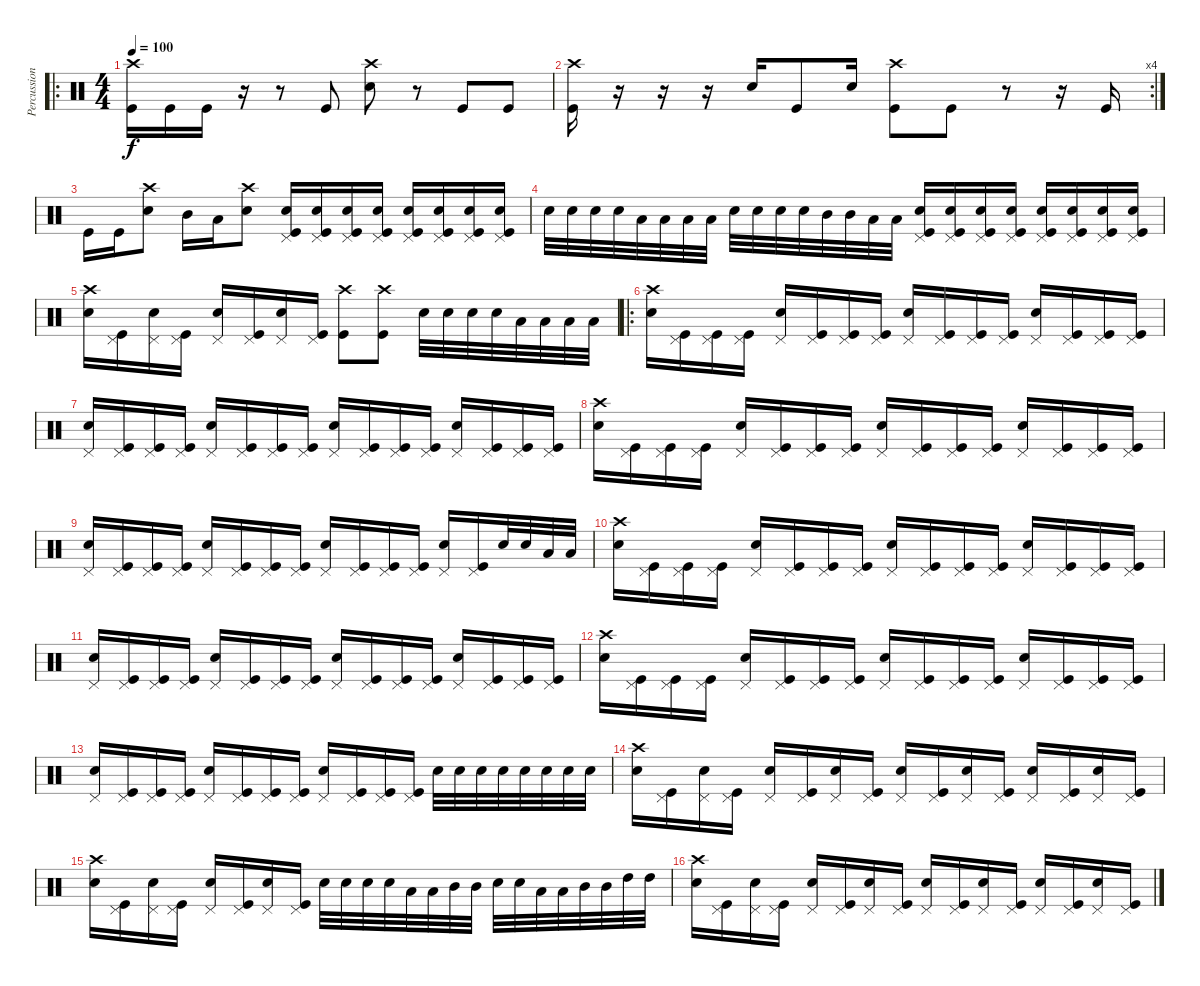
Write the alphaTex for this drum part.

\track ("Percussion" "Percussion") {instrument percussion}
\staff {score}
\articulation defaults
\ro
\ts (4 4)
\tempo 100
\clef neutral
\ks c
("Crash high (hit)" "Kick (hit)").16{dy f} "Kick (hit)".16 "Kick (hit)".16 r.16 r.8 "Kick (hit)".8 ("Crash high (hit)" "Electric Snare (hit)").8 r.8 "Kick (hit)".8 "Kick (hit)".8 |
\rc 4
("Crash high (hit)" "Kick (hit)").16 r.16 r.16 r.16 "Electric Snare (hit)".16 "Kick (hit)".8 "Electric Snare (hit)".16 ("Crash high (hit)" "Kick (hit)").8 "Kick (hit)".8 r.8 r.16 "Kick (hit)".16 |
"Kick (hit)".16 "Kick (hit)".16 ("Crash high (hit)" "Electric Snare (hit)").8 "Mid Tom (hit)".16 "Low Tom (hit)".16 ("Crash high (hit)" "Electric Snare (hit)").8 ("Pedal Hi-Hat (hit)" "Electric Snare (hit)" "Kick (hit)").16 ("Pedal Hi-Hat (hit)" "Electric Snare (hit)" "Kick (hit)").16 ("Pedal Hi-Hat (hit)" "Electric Snare (hit)" "Kick (hit)").16 ("Pedal Hi-Hat (hit)" "Electric Snare (hit)" "Kick (hit)").16 ("Pedal Hi-Hat (hit)" "Electric Snare (hit)" "Kick (hit)").16 ("Pedal Hi-Hat (hit)" "Electric Snare (hit)" "Kick (hit)").16 ("Pedal Hi-Hat (hit)" "Electric Snare (hit)" "Kick (hit)").16 ("Pedal Hi-Hat (hit)" "Electric Snare (hit)" "Kick (hit)").16 |
"Electric Snare (hit)".32 "Electric Snare (hit)".32 "Electric Snare (hit)".32 "Electric Snare (hit)".32 "Low Tom (hit)".32 "Low Tom (hit)".32 "Low Tom (hit)".32 "Low Tom (hit)".32 "Electric Snare (hit)".32 "Electric Snare (hit)".32 "Electric Snare (hit)".32 "Electric Snare (hit)".32 "Mid Tom (hit)".32 "Mid Tom (hit)".32 "Low Tom (hit)".32 "Low Tom (hit)".32 ("Pedal Hi-Hat (hit)" "Kick (hit)" "Electric Snare (hit)").16 ("Pedal Hi-Hat (hit)" "Kick (hit)" "Electric Snare (hit)").16 ("Pedal Hi-Hat (hit)" "Kick (hit)" "Electric Snare (hit)").16 ("Pedal Hi-Hat (hit)" "Kick (hit)" "Electric Snare (hit)").16 ("Pedal Hi-Hat (hit)" "Kick (hit)" "Electric Snare (hit)").16 ("Pedal Hi-Hat (hit)" "Kick (hit)" "Electric Snare (hit)").16 ("Pedal Hi-Hat (hit)" "Kick (hit)" "Electric Snare (hit)").16 ("Pedal Hi-Hat (hit)" "Kick (hit)" "Electric Snare (hit)").16 |
("Crash high (hit)" "Electric Snare (hit)").16 ("Pedal Hi-Hat (hit)" "Kick (hit)").16 ("Pedal Hi-Hat (hit)" "Electric Snare (hit)").16 ("Pedal Hi-Hat (hit)" "Kick (hit)").16 ("Pedal Hi-Hat (hit)" "Electric Snare (hit)").16 ("Pedal Hi-Hat (hit)" "Kick (hit)").16 ("Pedal Hi-Hat (hit)" "Electric Snare (hit)").16 ("Pedal Hi-Hat (hit)" "Kick (hit)").16 ("Crash high (hit)" "Kick (hit)").8 ("Crash high (hit)" "Kick (hit)").8 "Electric Snare (hit)".32 "Electric Snare (hit)".32 "Electric Snare (hit)".32 "Electric Snare (hit)".32 "Low Tom (hit)".32 "Low Tom (hit)".32 "Low Tom (hit)".32 "Low Tom (hit)".32 |
\ro
("Crash high (hit)" "Electric Snare (hit)").16 ("Pedal Hi-Hat (hit)" "Kick (hit)").16 ("Pedal Hi-Hat (hit)" "Kick (hit)").16 ("Pedal Hi-Hat (hit)" "Kick (hit)").16 ("Pedal Hi-Hat (hit)" "Electric Snare (hit)").16 ("Pedal Hi-Hat (hit)" "Kick (hit)").16 ("Pedal Hi-Hat (hit)" "Kick (hit)").16 ("Pedal Hi-Hat (hit)" "Kick (hit)").16 ("Pedal Hi-Hat (hit)" "Electric Snare (hit)").16 ("Pedal Hi-Hat (hit)" "Kick (hit)").16 ("Pedal Hi-Hat (hit)" "Kick (hit)").16 ("Pedal Hi-Hat (hit)" "Kick (hit)").16 ("Pedal Hi-Hat (hit)" "Electric Snare (hit)").16 ("Pedal Hi-Hat (hit)" "Kick (hit)").16 ("Pedal Hi-Hat (hit)" "Kick (hit)").16 ("Pedal Hi-Hat (hit)" "Kick (hit)").16 |
("Pedal Hi-Hat (hit)" "Electric Snare (hit)").16 ("Pedal Hi-Hat (hit)" "Kick (hit)").16 ("Pedal Hi-Hat (hit)" "Kick (hit)").16 ("Pedal Hi-Hat (hit)" "Kick (hit)").16 ("Pedal Hi-Hat (hit)" "Electric Snare (hit)").16 ("Pedal Hi-Hat (hit)" "Kick (hit)").16 ("Pedal Hi-Hat (hit)" "Kick (hit)").16 ("Pedal Hi-Hat (hit)" "Kick (hit)").16 ("Pedal Hi-Hat (hit)" "Electric Snare (hit)").16 ("Pedal Hi-Hat (hit)" "Kick (hit)").16 ("Pedal Hi-Hat (hit)" "Kick (hit)").16 ("Pedal Hi-Hat (hit)" "Kick (hit)").16 ("Pedal Hi-Hat (hit)" "Electric Snare (hit)").16 ("Pedal Hi-Hat (hit)" "Kick (hit)").16 ("Pedal Hi-Hat (hit)" "Kick (hit)").16 ("Pedal Hi-Hat (hit)" "Kick (hit)").16 |
("Crash high (hit)" "Electric Snare (hit)").16 ("Pedal Hi-Hat (hit)" "Kick (hit)").16 ("Pedal Hi-Hat (hit)" "Kick (hit)").16 ("Pedal Hi-Hat (hit)" "Kick (hit)").16 ("Pedal Hi-Hat (hit)" "Electric Snare (hit)").16 ("Pedal Hi-Hat (hit)" "Kick (hit)").16 ("Pedal Hi-Hat (hit)" "Kick (hit)").16 ("Pedal Hi-Hat (hit)" "Kick (hit)").16 ("Pedal Hi-Hat (hit)" "Electric Snare (hit)").16 ("Pedal Hi-Hat (hit)" "Kick (hit)").16 ("Pedal Hi-Hat (hit)" "Kick (hit)").16 ("Pedal Hi-Hat (hit)" "Kick (hit)").16 ("Pedal Hi-Hat (hit)" "Electric Snare (hit)").16 ("Pedal Hi-Hat (hit)" "Kick (hit)").16 ("Pedal Hi-Hat (hit)" "Kick (hit)").16 ("Pedal Hi-Hat (hit)" "Kick (hit)").16 |
("Pedal Hi-Hat (hit)" "Electric Snare (hit)").16 ("Pedal Hi-Hat (hit)" "Kick (hit)").16 ("Pedal Hi-Hat (hit)" "Kick (hit)").16 ("Pedal Hi-Hat (hit)" "Kick (hit)").16 ("Pedal Hi-Hat (hit)" "Electric Snare (hit)").16 ("Pedal Hi-Hat (hit)" "Kick (hit)").16 ("Pedal Hi-Hat (hit)" "Kick (hit)").16 ("Pedal Hi-Hat (hit)" "Kick (hit)").16 ("Pedal Hi-Hat (hit)" "Electric Snare (hit)").16 ("Pedal Hi-Hat (hit)" "Kick (hit)").16 ("Pedal Hi-Hat (hit)" "Kick (hit)").16 ("Pedal Hi-Hat (hit)" "Kick (hit)").16 ("Pedal Hi-Hat (hit)" "Electric Snare (hit)").16 ("Pedal Hi-Hat (hit)" "Kick (hit)").16 "Electric Snare (hit)".32 "Electric Snare (hit)".32 "Low Tom (hit)".32 "Low Tom (hit)".32 |
("Crash high (hit)" "Electric Snare (hit)").16 ("Pedal Hi-Hat (hit)" "Kick (hit)").16 ("Pedal Hi-Hat (hit)" "Kick (hit)").16 ("Pedal Hi-Hat (hit)" "Kick (hit)").16 ("Pedal Hi-Hat (hit)" "Electric Snare (hit)").16 ("Pedal Hi-Hat (hit)" "Kick (hit)").16 ("Pedal Hi-Hat (hit)" "Kick (hit)").16 ("Pedal Hi-Hat (hit)" "Kick (hit)").16 ("Pedal Hi-Hat (hit)" "Electric Snare (hit)").16 ("Pedal Hi-Hat (hit)" "Kick (hit)").16 ("Pedal Hi-Hat (hit)" "Kick (hit)").16 ("Pedal Hi-Hat (hit)" "Kick (hit)").16 ("Pedal Hi-Hat (hit)" "Electric Snare (hit)").16 ("Pedal Hi-Hat (hit)" "Kick (hit)").16 ("Pedal Hi-Hat (hit)" "Kick (hit)").16 ("Pedal Hi-Hat (hit)" "Kick (hit)").16 |
("Pedal Hi-Hat (hit)" "Electric Snare (hit)").16 ("Pedal Hi-Hat (hit)" "Kick (hit)").16 ("Pedal Hi-Hat (hit)" "Kick (hit)").16 ("Pedal Hi-Hat (hit)" "Kick (hit)").16 ("Pedal Hi-Hat (hit)" "Electric Snare (hit)").16 ("Pedal Hi-Hat (hit)" "Kick (hit)").16 ("Pedal Hi-Hat (hit)" "Kick (hit)").16 ("Pedal Hi-Hat (hit)" "Kick (hit)").16 ("Pedal Hi-Hat (hit)" "Electric Snare (hit)").16 ("Pedal Hi-Hat (hit)" "Kick (hit)").16 ("Pedal Hi-Hat (hit)" "Kick (hit)").16 ("Pedal Hi-Hat (hit)" "Kick (hit)").16 ("Pedal Hi-Hat (hit)" "Electric Snare (hit)").16 ("Pedal Hi-Hat (hit)" "Kick (hit)").16 ("Pedal Hi-Hat (hit)" "Kick (hit)").16 ("Pedal Hi-Hat (hit)" "Kick (hit)").16 |
("Crash high (hit)" "Electric Snare (hit)").16 ("Pedal Hi-Hat (hit)" "Kick (hit)").16 ("Pedal Hi-Hat (hit)" "Kick (hit)").16 ("Pedal Hi-Hat (hit)" "Kick (hit)").16 ("Pedal Hi-Hat (hit)" "Electric Snare (hit)").16 ("Pedal Hi-Hat (hit)" "Kick (hit)").16 ("Pedal Hi-Hat (hit)" "Kick (hit)").16 ("Pedal Hi-Hat (hit)" "Kick (hit)").16 ("Pedal Hi-Hat (hit)" "Electric Snare (hit)").16 ("Pedal Hi-Hat (hit)" "Kick (hit)").16 ("Pedal Hi-Hat (hit)" "Kick (hit)").16 ("Pedal Hi-Hat (hit)" "Kick (hit)").16 ("Pedal Hi-Hat (hit)" "Electric Snare (hit)").16 ("Pedal Hi-Hat (hit)" "Kick (hit)").16 ("Pedal Hi-Hat (hit)" "Kick (hit)").16 ("Pedal Hi-Hat (hit)" "Kick (hit)").16 |
("Pedal Hi-Hat (hit)" "Electric Snare (hit)").16 ("Pedal Hi-Hat (hit)" "Kick (hit)").16 ("Pedal Hi-Hat (hit)" "Kick (hit)").16 ("Pedal Hi-Hat (hit)" "Kick (hit)").16 ("Pedal Hi-Hat (hit)" "Electric Snare (hit)").16 ("Pedal Hi-Hat (hit)" "Kick (hit)").16 ("Pedal Hi-Hat (hit)" "Kick (hit)").16 ("Pedal Hi-Hat (hit)" "Kick (hit)").16 ("Pedal Hi-Hat (hit)" "Electric Snare (hit)").16 ("Pedal Hi-Hat (hit)" "Kick (hit)").16 ("Pedal Hi-Hat (hit)" "Kick (hit)").16 ("Pedal Hi-Hat (hit)" "Kick (hit)").16 "Electric Snare (hit)".32 "Electric Snare (hit)".32 "Electric Snare (hit)".32 "Electric Snare (hit)".32 "Electric Snare (hit)".32 "Electric Snare (hit)".32 "Electric Snare (hit)".32 "Electric Snare (hit)".32 |
("Crash high (hit)" "Electric Snare (hit)").16 ("Pedal Hi-Hat (hit)" "Kick (hit)").16 ("Pedal Hi-Hat (hit)" "Electric Snare (hit)").16 ("Pedal Hi-Hat (hit)" "Kick (hit)").16 ("Pedal Hi-Hat (hit)" "Electric Snare (hit)").16 ("Pedal Hi-Hat (hit)" "Kick (hit)").16 ("Pedal Hi-Hat (hit)" "Electric Snare (hit)").16 ("Pedal Hi-Hat (hit)" "Kick (hit)").16 ("Pedal Hi-Hat (hit)" "Electric Snare (hit)").16 ("Pedal Hi-Hat (hit)" "Kick (hit)").16 ("Pedal Hi-Hat (hit)" "Electric Snare (hit)").16 ("Pedal Hi-Hat (hit)" "Kick (hit)").16 ("Pedal Hi-Hat (hit)" "Electric Snare (hit)").16 ("Pedal Hi-Hat (hit)" "Kick (hit)").16 ("Pedal Hi-Hat (hit)" "Electric Snare (hit)").16 ("Pedal Hi-Hat (hit)" "Kick (hit)").16 |
("Crash high (hit)" "Electric Snare (hit)").16 ("Pedal Hi-Hat (hit)" "Kick (hit)").16 ("Pedal Hi-Hat (hit)" "Electric Snare (hit)").16 ("Pedal Hi-Hat (hit)" "Kick (hit)").16 ("Pedal Hi-Hat (hit)" "Electric Snare (hit)").16 ("Pedal Hi-Hat (hit)" "Kick (hit)").16 ("Pedal Hi-Hat (hit)" "Electric Snare (hit)").16 ("Pedal Hi-Hat (hit)" "Kick (hit)").16 "Electric Snare (hit)".32 "Electric Snare (hit)".32 "Electric Snare (hit)".32 "Electric Snare (hit)".32 "Low Tom (hit)".32 "Low Tom (hit)".32 "Mid Tom (hit)".32 "Mid Tom (hit)".32 "Electric Snare (hit)".32 "Electric Snare (hit)".32 "Low Tom (hit)".32 "Low Tom (hit)".32 "Mid Tom (hit)".32 "Mid Tom (hit)".32 "High Tom (hit)".32 "High Tom (hit)".32 |
("Crash high (hit)" "Electric Snare (hit)").16 ("Pedal Hi-Hat (hit)" "Kick (hit)").16 ("Pedal Hi-Hat (hit)" "Electric Snare (hit)").16 ("Pedal Hi-Hat (hit)" "Kick (hit)").16 ("Pedal Hi-Hat (hit)" "Electric Snare (hit)").16 ("Pedal Hi-Hat (hit)" "Kick (hit)").16 ("Pedal Hi-Hat (hit)" "Electric Snare (hit)").16 ("Pedal Hi-Hat (hit)" "Kick (hit)").16 ("Pedal Hi-Hat (hit)" "Electric Snare (hit)").16 ("Pedal Hi-Hat (hit)" "Kick (hit)").16 ("Pedal Hi-Hat (hit)" "Electric Snare (hit)").16 ("Pedal Hi-Hat (hit)" "Kick (hit)").16 ("Pedal Hi-Hat (hit)" "Electric Snare (hit)").16 ("Pedal Hi-Hat (hit)" "Kick (hit)").16 ("Pedal Hi-Hat (hit)" "Electric Snare (hit)").16 ("Pedal Hi-Hat (hit)" "Kick (hit)").16
